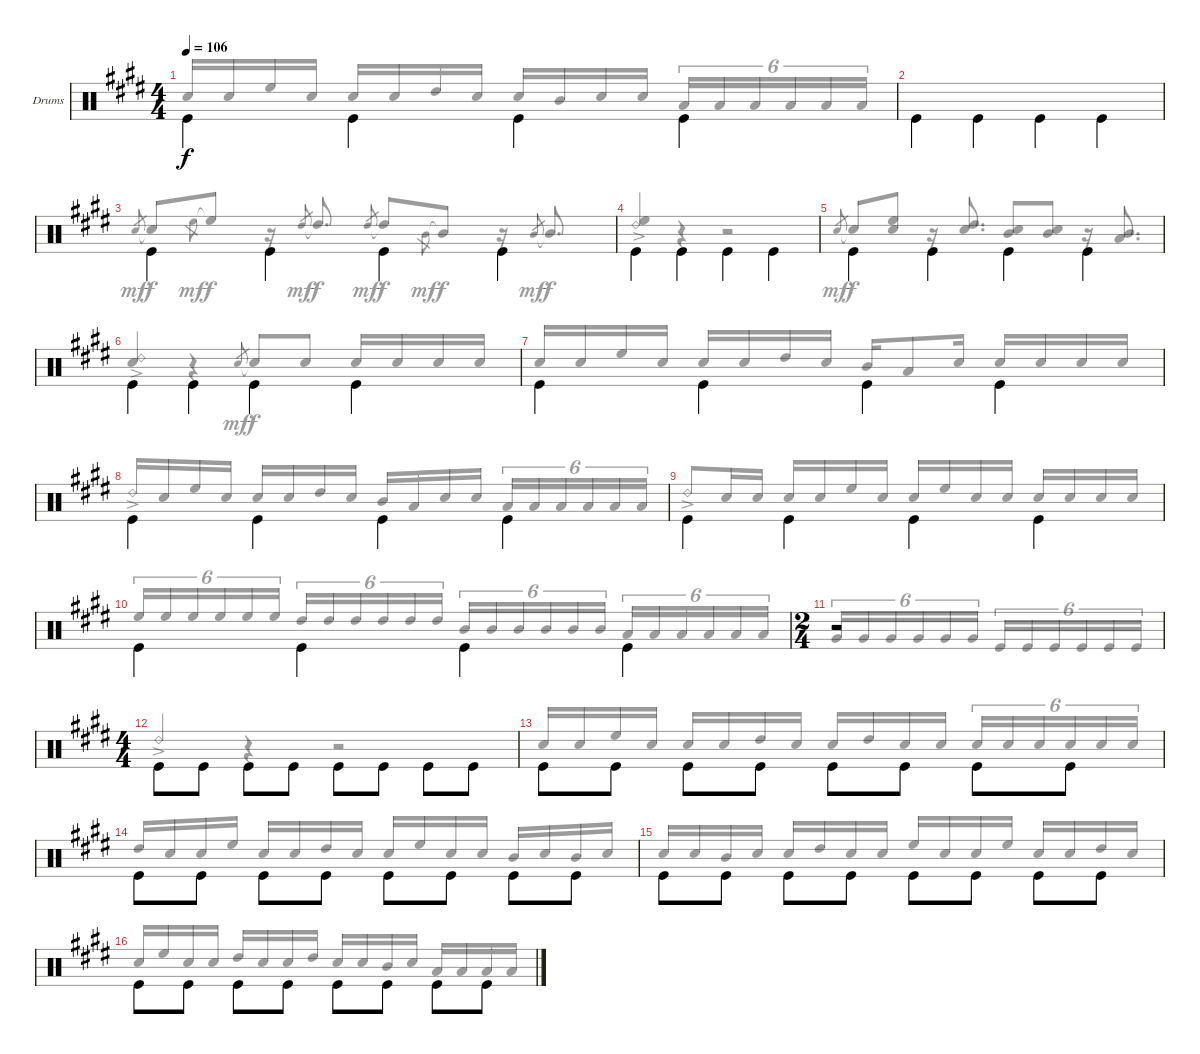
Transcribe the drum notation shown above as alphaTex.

\bracketExtendMode groupsimilarinstruments
\firstSystemTrackNameOrientation horizontal
\otherSystemsTrackNameOrientation horizontal
\track ("Drums" "Drums") {instrument percussion}
\staff {score}
\articulation defaults
\voice
\ts (4 4)
\tempo 106
\clef neutral
\scale
1.02648
\ks e "Kick (hit)".4{dy f beam invert} "Kick (hit)".4{beam invert} "Kick (hit)".4{beam invert} "Kick (hit)".4{beam invert}
|
\scale
0.973518 "Kick (hit)".4{beam invert} "Kick (hit)".4{beam invert} "Kick (hit)".4{beam invert} "Kick (hit)".4{beam invert} |
\scale
1.02648 "Kick (hit)".4{beam invert} "Kick (hit)".4{beam invert} "Kick (hit)".4{beam invert} "Kick (hit)".4{beam invert} |
\scale
0.973518 "Kick (hit)".4{beam invert} "Kick (hit)".4{beam invert} "Kick (hit)".4{beam invert} "Kick (hit)".4{beam invert} |
\scale
1.02648 "Kick (hit)".4{beam invert} "Kick (hit)".4{beam invert} "Kick (hit)".4{beam invert} "Kick (hit)".4{beam invert} |
\scale
0.973518 "Kick (hit)".4{beam invert} "Kick (hit)".4{beam invert} "Kick (hit)".4{beam invert} "Kick (hit)".4{beam invert} |
\scale
1.02648 "Kick (hit)".4{beam invert} "Kick (hit)".4{beam invert} "Kick (hit)".4{beam invert} "Kick (hit)".4{beam invert} |
\scale
0.973518 "Kick (hit)".4{beam invert} "Kick (hit)".4{beam invert} "Kick (hit)".4{beam invert} "Kick (hit)".4{beam invert} |
\scale
1.02648 "Kick (hit)".4{beam invert} "Kick (hit)".4{beam invert} "Kick (hit)".4{beam invert} "Kick (hit)".4{beam invert} |
\scale
0.973518 "Kick (hit)".4{beam invert} "Kick (hit)".4{beam invert} "Kick (hit)".4{beam invert} "Kick (hit)".4{beam invert} |
\ts (2 4)
\beaming (8 2 2 2 2)
\scale
1.05675 r.2 |
\ts (4 4)
\beaming (8 2 2 2 2)
\scale
0.943253 "Kick (hit)".8{beam invert} "Kick (hit)".8 "Kick (hit)".8{beam invert} "Kick (hit)".8 "Kick (hit)".8{beam invert} "Kick (hit)".8 "Kick (hit)".8{beam invert} "Kick (hit)".8 |
\scale
1.02648 "Kick (hit)".8{beam invert} "Kick (hit)".8 "Kick (hit)".8{beam invert} "Kick (hit)".8 "Kick (hit)".8{beam invert} "Kick (hit)".8 "Kick (hit)".8{beam invert} "Kick (hit)".8 |
\scale
0.973518 "Kick (hit)".8{beam invert} "Kick (hit)".8 "Kick (hit)".8{beam invert} "Kick (hit)".8 "Kick (hit)".8{beam invert} "Kick (hit)".8 "Kick (hit)".8{beam invert} "Kick (hit)".8 |
\scale
1.02648 "Kick (hit)".8{beam invert} "Kick (hit)".8 "Kick (hit)".8{beam invert} "Kick (hit)".8 "Kick (hit)".8{beam invert} "Kick (hit)".8 "Kick (hit)".8{beam invert} "Kick (hit)".8 |
\scale
0.973518 "Kick (hit)".8{beam invert} "Kick (hit)".8 "Kick (hit)".8{beam invert} "Kick (hit)".8 "Kick (hit)".8{beam invert} "Kick (hit)".8 "Kick (hit)".8{beam invert} "Kick (hit)".8
\voice
\clef neutral
\ottava regular
\simile none
\scale
1.02648
\ks e "Snare (hit) 2".16{dy f beam invert} "Snare (hit) 2".16 "High Floor Tom (hit)".16 "Snare (hit) 2".16 "Snare (hit) 2".16{beam invert} "Snare (hit) 2".16 "High Tom (hit)".16 "Snare (hit) 2".16 "Snare (hit) 2".16{beam invert} "Mid Tom (hit)".16 "Snare (hit) 2".16 "Snare (hit) 2".16 "Low Tom (hit)".16{tu (6 4) beam invert} "Low Tom (hit)".16{tu (6 4)} "Low Tom (hit)".16{tu (6 4)} "Low Tom (hit)".16{tu (6 4)} "Low Tom (hit)".16{tu (6 4)} "Low Tom (hit)".16{tu (6 4)}
|
\scale
0.973518 |
\scale
1.02648 "Snare (hit) 2".8{gr dy mf beam invert} "Snare (hit) 2"{t}.8{dy f beam invert} "High Floor Tom (hit)".8{gr dy mf} "High Floor Tom (hit)"{t}.8{dy f} r.16{beam invert} "High Tom (hit)".8{gr dy mf beam invert} "High Tom (hit)"{t}.8{d dy f beam invert} "High Tom (hit)".8{gr dy mf beam invert} "High Tom (hit)"{t}.8{dy f beam invert} "Mid Tom (hit)".8{gr dy mf} "Mid Tom (hit)"{t}.8{dy f} r.16{beam invert} "Mid Tom (hit)".8{gr dy mf beam invert} "Mid Tom (hit)"{t}.8{d dy f beam invert} |
\scale
0.973518 ("High Floor Tom (hit)" "Ride (bell) 2"{ac}).4{beam invert} r.4 r.2 |
\scale
1.02648 "Snare (hit) 2".8{gr dy mf beam invert} "Snare (hit) 2"{t}.8{dy f beam invert} ("High Floor Tom (hit)" "Snare (hit) 2").8 r.16{beam invert} ("High Tom (hit)" "Snare (hit) 2").8{d beam invert} ("Mid Tom (hit)" "Snare (hit) 2").8{beam invert} ("Mid Tom (hit)" "Snare (hit) 2").8 r.16{beam invert} ("Mid Tom (hit)" "Low Tom (hit)").8{d beam invert} |
\scale
0.973518 ("Snare (hit) 2" "Ride (bell) 2"{ac}).4{beam invert} r.4{beam invert} "Snare (hit) 2".8{gr dy mf beam invert} "Snare (hit) 2"{t}.8{dy f beam invert} "Snare (hit) 2".8 "Snare (hit) 2".16{beam invert} "Snare (hit) 2".16 "Snare (hit) 2".16 "Snare (hit) 2".16 |
\scale
1.02648 "Snare (hit) 2".16{beam invert} "Snare (hit) 2".16 "High Floor Tom (hit)".16 "Snare (hit) 2".16 "Snare (hit) 2".16{beam invert} "Snare (hit) 2".16 "High Tom (hit)".16 "Snare (hit) 2".16 "Mid Tom (hit)".16{beam invert} "Low Tom (hit)".8 "Snare (hit) 2".16 "Snare (hit) 2".16{beam invert} "Snare (hit) 2".16 "Snare (hit) 2".16 "Snare (hit) 2".16 |
\scale
0.973518 "Ride (bell) 2"{ac}.16{beam invert} "Snare (hit) 2".16 "High Floor Tom (hit)".16 "Snare (hit) 2".16 "Snare (hit) 2".16{beam invert} "Snare (hit) 2".16 "High Tom (hit)".16 "Snare (hit) 2".16 "Mid Tom (hit)".16{beam invert} "Low Tom (hit)".16 "Snare (hit) 2".16 "Snare (hit) 2".16 "Low Tom (hit)".16{tu (6 4) beam invert} "Low Tom (hit)".16{tu (6 4)} "Low Tom (hit)".16{tu (6 4)} "Low Tom (hit)".16{tu (6 4)} "Low Tom (hit)".16{tu (6 4)} "Low Tom (hit)".16{tu (6 4)} |
\scale
1.02648 "Ride (bell) 2"{ac}.8{beam invert} "Snare (hit) 2".16 "Snare (hit) 2".16 "Snare (hit) 2".16{beam invert} "Snare (hit) 2".16 "High Floor Tom (hit)".16 "Snare (hit) 2".16 "Snare (hit) 2".16{beam invert} "High Floor Tom (hit)".16 "Snare (hit) 2".16 "Snare (hit) 2".16 "Snare (hit) 2".16{beam invert} "Snare (hit) 2".16 "Snare (hit) 2".16 "Snare (hit) 2".16 |
\scale
0.973518 "High Floor Tom (hit)".16{tu (6 4) beam invert} "High Floor Tom (hit)".16{tu (6 4)} "High Floor Tom (hit)".16{tu (6 4)} "High Floor Tom (hit)".16{tu (6 4)} "High Floor Tom (hit)".16{tu (6 4)} "High Floor Tom (hit)".16{tu (6 4)} "High Tom (hit)".16{tu (6 4) beam invert} "High Tom (hit)".16{tu (6 4)} "High Tom (hit)".16{tu (6 4)} "High Tom (hit)".16{tu (6 4)} "High Tom (hit)".16{tu (6 4)} "High Tom (hit)".16{tu (6 4)} "Mid Tom (hit)".16{tu (6 4) beam invert} "Mid Tom (hit)".16{tu (6 4)} "Mid Tom (hit)".16{tu (6 4)} "Mid Tom (hit)".16{tu (6 4)} "Mid Tom (hit)".16{tu (6 4)} "Mid Tom (hit)".16{tu (6 4)} "Low Tom (hit)".16{tu (6 4) beam invert} "Low Tom (hit)".16{tu (6 4)} "Low Tom (hit)".16{tu (6 4)} "Low Tom (hit)".16{tu (6 4)} "Low Tom (hit)".16{tu (6 4)} "Low Tom (hit)".16{tu (6 4)} |
\scale
1.05675 "Very Low Tom (hit)".16{tu (6 4) beam invert} "Very Low Tom (hit)".16{tu (6 4)} "Very Low Tom (hit)".16{tu (6 4)} "Very Low Tom (hit)".16{tu (6 4)} "Very Low Tom (hit)".16{tu (6 4)} "Very Low Tom (hit)".16{tu (6 4)} "Kick (hit)".16{tu (6 4) beam invert} "Kick (hit)".16{tu (6 4)} "Kick (hit)".16{tu (6 4)} "Kick (hit)".16{tu (6 4)} "Kick (hit)".16{tu (6 4)} "Kick (hit)".16{tu (6 4)} |
\scale
0.943253 "Ride (bell) 2"{ac}.4{beam invert} r.4 r.2 |
\scale
1.02648 "Snare (hit) 2".16{beam invert} "Snare (hit) 2".16 "High Floor Tom (hit)".16 "Snare (hit) 2".16 "Snare (hit) 2".16{beam invert} "Snare (hit) 2".16 "High Tom (hit)".16 "Snare (hit) 2".16 "Snare (hit) 2".16{beam invert} "High Tom (hit)".16 "Snare (hit) 2".16 "Snare (hit) 2".16 "Snare (hit) 2".16{tu (6 4) beam invert} "Snare (hit) 2".16{tu (6 4)} "Snare (hit) 2".16{tu (6 4)} "Snare (hit) 2".16{tu (6 4)} "Snare (hit) 2".16{tu (6 4)} "Snare (hit) 2".16{tu (6 4)} |
\scale
0.973518 "High Tom (hit)".16{beam invert} "Snare (hit) 2".16 "Snare (hit) 2".16 "High Floor Tom (hit)".16 "Snare (hit) 2".16{beam invert} "Snare (hit) 2".16 "High Tom (hit)".16 "Snare (hit) 2".16 "Snare (hit) 2".16{beam invert} "High Floor Tom (hit)".16 "Snare (hit) 2".16 "Snare (hit) 2".16 "Mid Tom (hit)".16{beam invert} "Snare (hit) 2".16 "Mid Tom (hit)".16 "Snare (hit) 2".16 |
\scale
1.02648 "Snare (hit) 2".16{beam invert} "Snare (hit) 2".16 "Mid Tom (hit)".16 "Snare (hit) 2".16 "Snare (hit) 2".16{beam invert} "High Tom (hit)".16 "Snare (hit) 2".16 "Snare (hit) 2".16 "High Floor Tom (hit)".16{beam invert} "Snare (hit) 2".16 "Snare (hit) 2".16 "High Floor Tom (hit)".16 "Snare (hit) 2".16{beam invert} "Snare (hit) 2".16 "High Tom (hit)".16 "Snare (hit) 2".16 |
\scale
0.973518 "Snare (hit) 2".16{beam invert} "High Floor Tom (hit)".16 "Snare (hit) 2".16 "Snare (hit) 2".16 "High Tom (hit)".16{beam invert} "Snare (hit) 2".16 "Snare (hit) 2".16 "High Tom (hit)".16 "Snare (hit) 2".16{beam invert} "Snare (hit) 2".16 "Mid Tom (hit)".16 "Snare (hit) 2".16 "Low Tom (hit)".16{beam invert} "Low Tom (hit)".16 "Low Tom (hit)".16 "Low Tom (hit)".16
